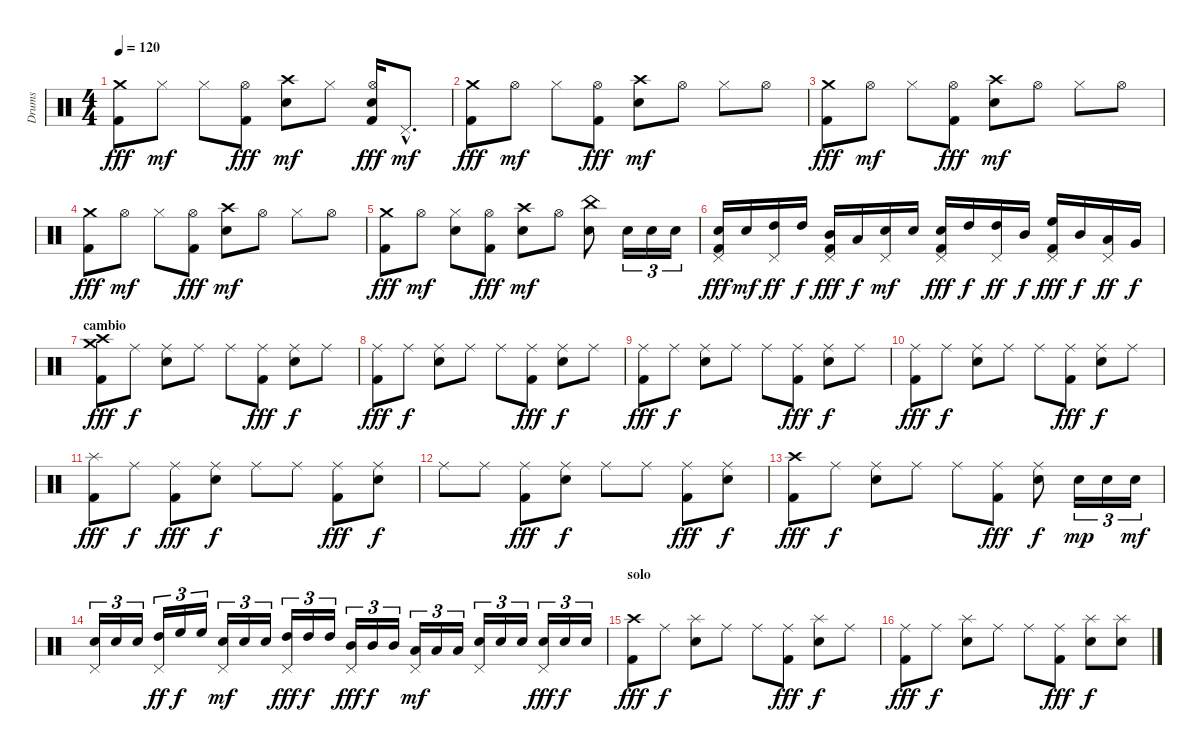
\track ("Drums" "Drums") {instrument percussion}
\staff {score}
\articulation defaults
\ts (4 4)
\tempo 120
\clef neutral
\ks c
("Crash medium (hit)" "Kick (hit) 2").8{dy fff} "Hi-Hat (closed)".8{dy mf} "Hi-Hat (closed)".8 ("Hi-Hat (open)" "Kick (hit) 2").8{dy fff} ("Crash high (hit)" "Electric Snare (hit)").8{dy mf} "Hi-Hat (closed)".8 ("Hi-Hat (open)" "Electric Snare (hit)" "Kick (hit) 2").16{dy fff} "Pedal Hi-Hat (hit)"{hac}.8{d dy mf} |
("Crash medium (hit)" "Kick (hit) 2").8{dy fff} "Hi-Hat (open)".8{dy mf} "Hi-Hat (closed)".8 ("Hi-Hat (open)" "Kick (hit) 2").8{dy fff} ("Crash high (hit)" "Electric Snare (hit)").8{dy mf} "Hi-Hat (open)".8 "Hi-Hat (closed)".8 "Hi-Hat (open)".8 |
("Crash medium (hit)" "Kick (hit) 2").8{dy fff} "Hi-Hat (open)".8{dy mf} "Hi-Hat (closed)".8 ("Hi-Hat (open)" "Kick (hit) 2").8{dy fff} ("Crash high (hit)" "Electric Snare (hit)").8{dy mf} "Hi-Hat (open)".8 "Hi-Hat (closed)".8 "Hi-Hat (open)".8 |
("Crash medium (hit)" "Kick (hit) 2").8{dy fff} "Hi-Hat (open)".8{dy mf} "Hi-Hat (closed)".8 ("Hi-Hat (open)" "Kick (hit) 2").8{dy fff} ("Crash high (hit)" "Electric Snare (hit)").8{dy mf} "Hi-Hat (open)".8 "Hi-Hat (closed)".8 "Hi-Hat (open)".8 |
("Crash medium (hit)" "Kick (hit) 2").8{dy fff} "Hi-Hat (open)".8{dy mf} ("Hi-Hat (closed)" "Electric Snare (hit)").8 ("Hi-Hat (open)" "Kick (hit) 2").8{dy fff} ("Crash high (hit)" "Electric Snare (hit)").8{dy mf} "Hi-Hat (open)".8 ("China (hit)" "Electric Snare (hit)").8 "Electric Snare (hit)".16{tu (3 2)} "Electric Snare (hit)".16{tu (3 2)} "Electric Snare (hit)".16{tu (3 2)} |
("Pedal Hi-Hat (hit)" "Electric Snare (hit)" "Kick (hit) 2").16{dy fff} "Electric Snare (hit)".16{dy mf} ("Pedal Hi-Hat (hit)" "High Tom (hit)").16{dy ff} "High Tom (hit)".16{dy f} ("Pedal Hi-Hat (hit)" "Mid Tom (hit)" "Kick (hit) 2").16{dy fff} "Low Tom (hit)".16{dy f} ("Pedal Hi-Hat (hit)" "Electric Snare (hit)").16{dy mf} "Electric Snare (hit)".16 ("Pedal Hi-Hat (hit)" "Electric Snare (hit)" "Kick (hit) 2").16{dy fff} "High Tom (hit)".16{dy f} ("Pedal Hi-Hat (hit)" "High Tom (hit)").16{dy ff} "Mid Tom (hit)".16{dy f} ("Pedal Hi-Hat (hit)" "High Floor Tom (hit)" "Kick (hit) 2").16{dy fff} "Mid Tom (hit)".16{dy f} ("Pedal Hi-Hat (hit)" "Low Tom (hit)").16{dy ff} "Very Low Tom (hit)".16{dy f} |
\section ("" "cambio")
("Crash medium (hit)" "Crash high (hit)" "Kick (hit) 2").8{dy fff} "Ride (middle)".8{dy f} ("Ride (middle)" "Electric Snare (hit)").8 "Ride (middle)".8 "Ride (middle)".8 ("Ride (middle)" "Kick (hit) 2").8{dy fff} ("Ride (middle)" "Electric Snare (hit)").8{dy f} "Ride (middle)".8 |
("Ride (middle)" "Kick (hit) 2").8{dy fff} "Ride (middle)".8{dy f} ("Ride (middle)" "Electric Snare (hit)").8 "Ride (middle)".8 "Ride (middle)".8 ("Ride (middle)" "Kick (hit) 2").8{dy fff} ("Ride (middle)" "Electric Snare (hit)").8{dy f} "Ride (middle)".8 |
("Ride (middle)" "Kick (hit) 2").8{dy fff} "Ride (middle)".8{dy f} ("Ride (middle)" "Electric Snare (hit)").8 "Ride (middle)".8 "Ride (middle)".8 ("Ride (middle)" "Kick (hit) 2").8{dy fff} ("Ride (middle)" "Electric Snare (hit)").8{dy f} "Ride (middle)".8 |
("Ride (middle)" "Kick (hit) 2").8{dy fff} "Ride (middle)".8{dy f} ("Ride (middle)" "Electric Snare (hit)").8 "Ride (middle)".8 "Ride (middle)".8 ("Ride (middle)" "Kick (hit) 2").8{dy fff} ("Ride (middle)" "Electric Snare (hit)").8{dy f} "Ride (middle)".8 |
("Splash (hit)" "Kick (hit) 2").8{dy fff} "Ride (middle)".8{dy f} ("Ride (middle)" "Kick (hit) 2").8{dy fff} ("Ride (middle)" "Electric Snare (hit)").8{dy f} "Ride (middle)".8 "Ride (middle)".8 ("Ride (middle)" "Kick (hit) 2").8{dy fff} ("Ride (middle)" "Electric Snare (hit)").8{dy f} |
"Ride (middle)".8 "Ride (middle)".8 ("Ride (middle)" "Kick (hit) 2").8{dy fff} ("Ride (middle)" "Electric Snare (hit)").8{dy f} "Ride (middle)".8 "Ride (middle)".8 ("Ride (middle)" "Kick (hit) 2").8{dy fff} ("Ride (middle)" "Electric Snare (hit)").8{dy f} |
("Crash high (hit)" "Kick (hit) 2").8{dy fff} "Ride (middle)".8{dy f} ("Ride (middle)" "Electric Snare (hit)").8 "Ride (middle)".8 "Ride (middle)".8 ("Ride (middle)" "Kick (hit) 2").8{dy fff} ("Ride (middle)" "Electric Snare (hit)").8{dy f} "Electric Snare (hit)".16{tu (3 2) dy mp} "Electric Snare (hit)".16{tu (3 2)} "Electric Snare (hit)".16{tu (3 2) dy mf} |
("Pedal Hi-Hat (hit)" "Electric Snare (hit)").16{tu (3 2)} "Electric Snare (hit)".16{tu (3 2)} "Electric Snare (hit)".16{tu (3 2)} ("Pedal Hi-Hat (hit)" "High Tom (hit)").16{tu (3 2) dy ff} "High Floor Tom (hit)".16{tu (3 2) dy f} "High Floor Tom (hit)".16{tu (3 2)} ("Pedal Hi-Hat (hit)" "Electric Snare (hit)").16{tu (3 2) dy mf} "Electric Snare (hit)".16{tu (3 2)} "Electric Snare (hit)".16{tu (3 2)} ("Pedal Hi-Hat (hit)" "High Tom (hit)").16{tu (3 2) dy fff} "High Tom (hit)".16{tu (3 2) dy f} "High Tom (hit)".16{tu (3 2)} ("Pedal Hi-Hat (hit)" "Mid Tom (hit)").16{tu (3 2) dy fff} "Mid Tom (hit)".16{tu (3 2) dy f} "Mid Tom (hit)".16{tu (3 2)} ("Pedal Hi-Hat (hit)" "Low Tom (hit)").16{tu (3 2) dy mf} "Low Tom (hit)".16{tu (3 2)} "Low Tom (hit)".16{tu (3 2)} ("Pedal Hi-Hat (hit)" "Electric Snare (hit)").16{tu (3 2)} "Electric Snare (hit)".16{tu (3 2)} "Electric Snare (hit)".16{tu (3 2)} ("Pedal Hi-Hat (hit)" "Electric Snare (hit)").16{tu (3 2) dy fff} "Electric Snare (hit)".16{tu (3 2) dy f} "Electric Snare (hit)".16{tu (3 2)} |
\section ("" "solo")
("Crash high (hit)" "Kick (hit) 2").8{dy fff} "Ride (middle)".8{dy f} ("Splash (hit)" "Electric Snare (hit)").8 "Ride (middle)".8 "Ride (middle)".8 ("Ride (middle)" "Kick (hit) 2").8{dy fff} ("Splash (hit)" "Electric Snare (hit)").8{dy f} "Ride (middle)".8 |
("Ride (middle)" "Kick (hit) 2").8{dy fff} "Ride (middle)".8{dy f} ("Splash (hit)" "Electric Snare (hit)").8 "Ride (middle)".8 "Ride (middle)".8 ("Ride (middle)" "Kick (hit) 2").8{dy fff} ("Splash (hit)" "Electric Snare (hit)").8{dy f} ("Splash (hit)" "Electric Snare (hit)").8
